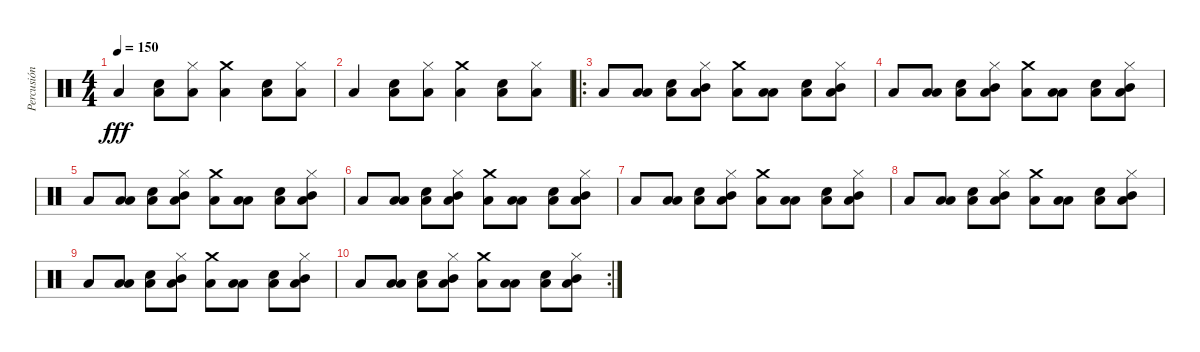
\track ("Percusión" "Percusión") {instrument percussion}
\staff {score}
\articulation defaults
\ts (4 4)
\tempo 150
\clef neutral
\ks c "Low Floor Tom (hit)".4{dy fff}
("Low Floor Tom (hit)" "Snare (hit) 2").8 ("Low Floor Tom (hit)" "Hi-Hat (closed)").8 ("Low Floor Tom (hit)" "Crash medium (hit)").4 ("Low Floor Tom (hit)" "Snare (hit) 2").8 ("Low Floor Tom (hit)" "Hi-Hat (closed)").8 |
"Low Floor Tom (hit)".4 ("Low Floor Tom (hit)" "Snare (hit) 2").8 ("Low Floor Tom (hit)" "Hi-Hat (closed)").8 ("Low Floor Tom (hit)" "Crash medium (hit)").4 ("Low Floor Tom (hit)" "Snare (hit) 2").8 ("Low Floor Tom (hit)" "Hi-Hat (closed)").8 |
\ro "Low Floor Tom (hit)".8
("Low Floor Tom (hit)" "Low Tom (hit)").8 ("Low Floor Tom (hit)" "Snare (hit) 2").8 ("Low Floor Tom (hit)" "Mid Tom (hit)" "Hi-Hat (closed)").8 ("Low Floor Tom (hit)" "Crash medium (hit)").8 ("Low Floor Tom (hit)" "Low Tom (hit)").8 ("Low Floor Tom (hit)" "Snare (hit) 2").8 ("Low Floor Tom (hit)" "Mid Tom (hit)" "Hi-Hat (closed)").8 |
"Low Floor Tom (hit)".8 ("Low Floor Tom (hit)" "Low Tom (hit)").8 ("Low Floor Tom (hit)" "Snare (hit) 2").8 ("Low Floor Tom (hit)" "Mid Tom (hit)" "Hi-Hat (closed)").8 ("Low Floor Tom (hit)" "Crash medium (hit)").8 ("Low Floor Tom (hit)" "Low Tom (hit)").8 ("Low Floor Tom (hit)" "Snare (hit) 2").8 ("Low Floor Tom (hit)" "Mid Tom (hit)" "Hi-Hat (closed)").8 |
"Low Floor Tom (hit)".8 ("Low Floor Tom (hit)" "Low Tom (hit)").8 ("Low Floor Tom (hit)" "Snare (hit) 2").8 ("Low Floor Tom (hit)" "Mid Tom (hit)" "Hi-Hat (closed)").8 ("Low Floor Tom (hit)" "Crash medium (hit)").8 ("Low Floor Tom (hit)" "Low Tom (hit)").8 ("Low Floor Tom (hit)" "Snare (hit) 2").8 ("Low Floor Tom (hit)" "Mid Tom (hit)" "Hi-Hat (closed)").8 |
"Low Floor Tom (hit)".8 ("Low Floor Tom (hit)" "Low Tom (hit)").8 ("Low Floor Tom (hit)" "Snare (hit) 2").8 ("Low Floor Tom (hit)" "Mid Tom (hit)" "Hi-Hat (closed)").8 ("Low Floor Tom (hit)" "Crash medium (hit)").8 ("Low Floor Tom (hit)" "Low Tom (hit)").8 ("Low Floor Tom (hit)" "Snare (hit) 2").8 ("Low Floor Tom (hit)" "Mid Tom (hit)" "Hi-Hat (closed)").8 |
"Low Floor Tom (hit)".8 ("Low Floor Tom (hit)" "Low Tom (hit)").8 ("Low Floor Tom (hit)" "Snare (hit) 2").8 ("Low Floor Tom (hit)" "Mid Tom (hit)" "Hi-Hat (closed)").8 ("Low Floor Tom (hit)" "Crash medium (hit)").8 ("Low Floor Tom (hit)" "Low Tom (hit)").8 ("Low Floor Tom (hit)" "Snare (hit) 2").8 ("Low Floor Tom (hit)" "Mid Tom (hit)" "Hi-Hat (closed)").8 |
"Low Floor Tom (hit)".8 ("Low Floor Tom (hit)" "Low Tom (hit)").8 ("Low Floor Tom (hit)" "Snare (hit) 2").8 ("Low Floor Tom (hit)" "Mid Tom (hit)" "Hi-Hat (closed)").8 ("Low Floor Tom (hit)" "Crash medium (hit)").8 ("Low Floor Tom (hit)" "Low Tom (hit)").8 ("Low Floor Tom (hit)" "Snare (hit) 2").8 ("Low Floor Tom (hit)" "Mid Tom (hit)" "Hi-Hat (closed)").8 |
"Low Floor Tom (hit)".8 ("Low Floor Tom (hit)" "Low Tom (hit)").8 ("Low Floor Tom (hit)" "Snare (hit) 2").8 ("Low Floor Tom (hit)" "Mid Tom (hit)" "Hi-Hat (closed)").8 ("Low Floor Tom (hit)" "Crash medium (hit)").8 ("Low Floor Tom (hit)" "Low Tom (hit)").8 ("Low Floor Tom (hit)" "Snare (hit) 2").8 ("Low Floor Tom (hit)" "Mid Tom (hit)" "Hi-Hat (closed)").8 |
\rc 2 "Low Floor Tom (hit)".8
("Low Floor Tom (hit)" "Low Tom (hit)").8 ("Low Floor Tom (hit)" "Snare (hit) 2").8 ("Low Floor Tom (hit)" "Mid Tom (hit)" "Hi-Hat (closed)").8 ("Low Floor Tom (hit)" "Crash medium (hit)").8 ("Low Floor Tom (hit)" "Low Tom (hit)").8 ("Low Floor Tom (hit)" "Snare (hit) 2").8 ("Low Floor Tom (hit)" "Mid Tom (hit)" "Hi-Hat (closed)").8
